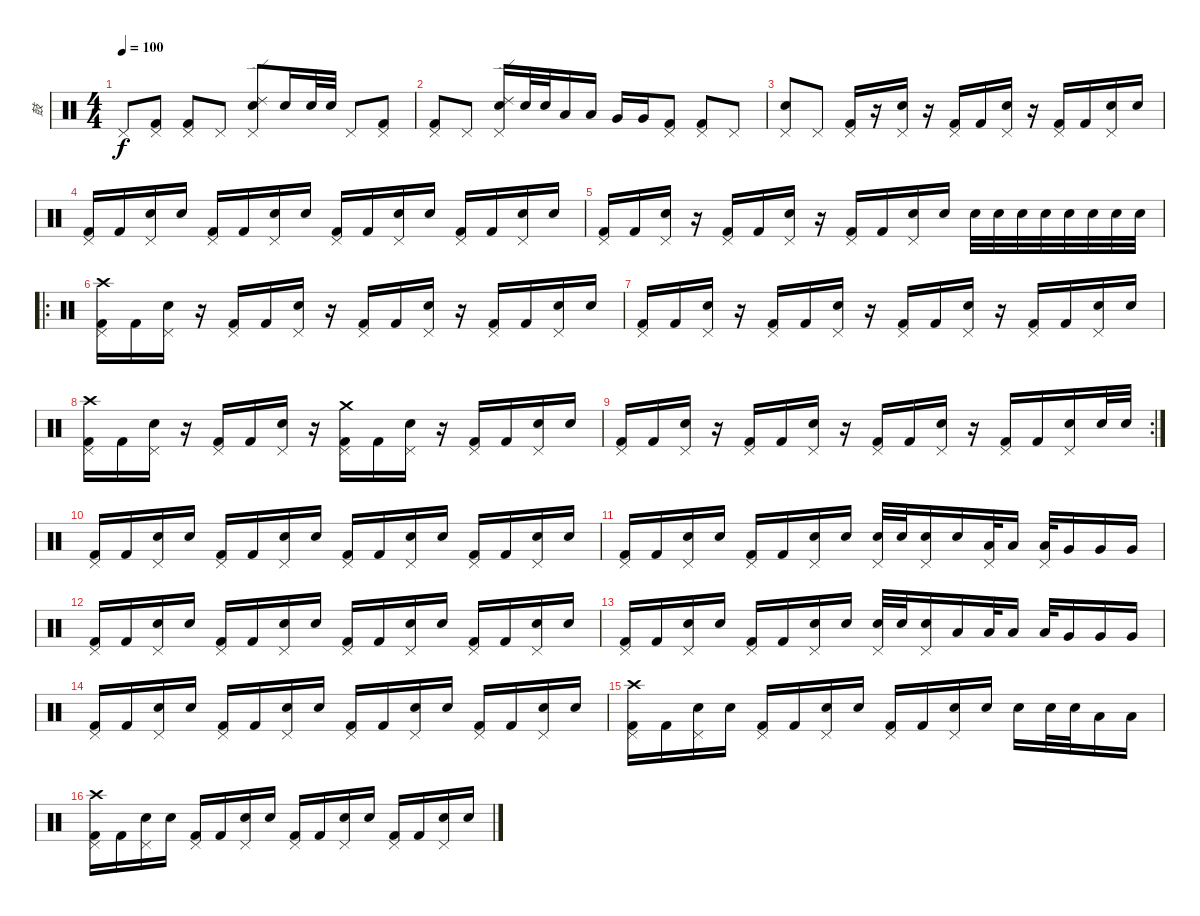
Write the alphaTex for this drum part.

\track ("鼓" "鼓") {instrument percussion}
\staff {score}
\articulation defaults
\ts (4 4)
\tempo 100
\clef neutral
\ks c "Pedal Hi-Hat (hit)".8{dy f}
("Pedal Hi-Hat (hit)" "Kick (hit) 2").8 ("Pedal Hi-Hat (hit)" "Kick (hit) 2").8 "Pedal Hi-Hat (hit)".8 ("Ride (edge) 2" "Pedal Hi-Hat (hit)" "Electric Snare (hit)").8 "Electric Snare (hit)".16 "Electric Snare (hit)".32 "Electric Snare (hit)".32 "Pedal Hi-Hat (hit)".8 ("Pedal Hi-Hat (hit)" "Kick (hit) 2").8 |
("Pedal Hi-Hat (hit)" "Kick (hit) 2").8 "Pedal Hi-Hat (hit)".8 ("Ride (edge) 2" "Pedal Hi-Hat (hit)" "Electric Snare (hit)").16 "Electric Snare (hit)".32 "Electric Snare (hit)".32 "Low Tom (hit)".16 "Low Tom (hit)".16 "Very Low Tom (hit)".16 "Very Low Tom (hit)".16 ("Pedal Hi-Hat (hit)" "Kick (hit) 2").8 ("Pedal Hi-Hat (hit)" "Kick (hit) 2").8 "Pedal Hi-Hat (hit)".8 |
("Pedal Hi-Hat (hit)" "Electric Snare (hit)").8 "Pedal Hi-Hat (hit)".8 ("Pedal Hi-Hat (hit)" "Kick (hit) 2").16 r.16 ("Pedal Hi-Hat (hit)" "Electric Snare (hit)").16 r.16 ("Pedal Hi-Hat (hit)" "Kick (hit) 2").16 "Kick (hit) 2".16 ("Pedal Hi-Hat (hit)" "Electric Snare (hit)").16 r.16 ("Pedal Hi-Hat (hit)" "Kick (hit) 2").16 "Kick (hit) 2".16 ("Pedal Hi-Hat (hit)" "Electric Snare (hit)").16 "Snare (hit)".16 |
("Pedal Hi-Hat (hit)" "Kick (hit) 2").16 "Kick (hit) 2".16 ("Pedal Hi-Hat (hit)" "Electric Snare (hit)").16 "Snare (hit)".16 ("Pedal Hi-Hat (hit)" "Kick (hit) 2").16 "Kick (hit) 2".16 ("Pedal Hi-Hat (hit)" "Electric Snare (hit)").16 "Snare (hit)".16 ("Pedal Hi-Hat (hit)" "Kick (hit) 2").16 "Kick (hit) 2".16 ("Pedal Hi-Hat (hit)" "Electric Snare (hit)").16 "Snare (hit)".16 ("Pedal Hi-Hat (hit)" "Kick (hit) 2").16 "Kick (hit) 2".16 ("Pedal Hi-Hat (hit)" "Electric Snare (hit)").16 "Snare (hit)".16 |
("Pedal Hi-Hat (hit)" "Kick (hit) 2").16 "Kick (hit) 2".16 ("Pedal Hi-Hat (hit)" "Electric Snare (hit)").16 r.16 ("Pedal Hi-Hat (hit)" "Kick (hit) 2").16 "Kick (hit) 2".16 ("Pedal Hi-Hat (hit)" "Electric Snare (hit)").16 r.16 ("Pedal Hi-Hat (hit)" "Kick (hit) 2").16 "Kick (hit) 2".16 ("Pedal Hi-Hat (hit)" "Electric Snare (hit)").16 "Electric Snare (hit)".16 "Electric Snare (hit)".32 "Electric Snare (hit)".32 "Electric Snare (hit)".32 "Electric Snare (hit)".32 "Electric Snare (hit)".32 "Electric Snare (hit)".32 "Electric Snare (hit)".32 "Electric Snare (hit)".32 |
\ro
("Crash high (hit)" "Pedal Hi-Hat (hit)" "Kick (hit) 2").16 "Kick (hit) 2".16 ("Pedal Hi-Hat (hit)" "Electric Snare (hit)").16 r.16 ("Pedal Hi-Hat (hit)" "Kick (hit) 2").16 "Kick (hit) 2".16 ("Pedal Hi-Hat (hit)" "Electric Snare (hit)").16 r.16 ("Pedal Hi-Hat (hit)" "Kick (hit) 2").16 "Kick (hit) 2".16 ("Pedal Hi-Hat (hit)" "Electric Snare (hit)").16 r.16 ("Pedal Hi-Hat (hit)" "Kick (hit) 2").16 "Kick (hit) 2".16 ("Pedal Hi-Hat (hit)" "Electric Snare (hit)").16 "Snare (hit)".16 |
("Pedal Hi-Hat (hit)" "Kick (hit) 2").16 "Kick (hit) 2".16 ("Pedal Hi-Hat (hit)" "Electric Snare (hit)").16 r.16 ("Pedal Hi-Hat (hit)" "Kick (hit) 2").16 "Kick (hit) 2".16 ("Pedal Hi-Hat (hit)" "Electric Snare (hit)").16 r.16 ("Pedal Hi-Hat (hit)" "Kick (hit) 2").16 "Kick (hit) 2".16 ("Pedal Hi-Hat (hit)" "Electric Snare (hit)").16 r.16 ("Pedal Hi-Hat (hit)" "Kick (hit) 2").16 "Kick (hit) 2".16 ("Pedal Hi-Hat (hit)" "Electric Snare (hit)").16 "Snare (hit)".16 |
("Crash high (hit)" "Pedal Hi-Hat (hit)" "Kick (hit) 2").16 "Kick (hit) 2".16 ("Pedal Hi-Hat (hit)" "Electric Snare (hit)").16 r.16 ("Pedal Hi-Hat (hit)" "Kick (hit) 2").16 "Kick (hit) 2".16 ("Pedal Hi-Hat (hit)" "Electric Snare (hit)").16 r.16 ("Crash medium (hit)" "Pedal Hi-Hat (hit)" "Kick (hit) 2").16 "Kick (hit) 2".16 ("Pedal Hi-Hat (hit)" "Electric Snare (hit)").16 r.16 ("Pedal Hi-Hat (hit)" "Kick (hit) 2").16 "Kick (hit) 2".16 ("Pedal Hi-Hat (hit)" "Electric Snare (hit)").16 "Snare (hit)".16 |
\rc 2
("Pedal Hi-Hat (hit)" "Kick (hit) 2").16 "Kick (hit) 2".16 ("Pedal Hi-Hat (hit)" "Electric Snare (hit)").16 r.16 ("Pedal Hi-Hat (hit)" "Kick (hit) 2").16 "Kick (hit) 2".16 ("Pedal Hi-Hat (hit)" "Electric Snare (hit)").16 r.16 ("Pedal Hi-Hat (hit)" "Kick (hit) 2").16 "Kick (hit) 2".16 ("Pedal Hi-Hat (hit)" "Electric Snare (hit)").16 r.16 ("Pedal Hi-Hat (hit)" "Kick (hit) 2").16 "Kick (hit) 2".16 ("Pedal Hi-Hat (hit)" "Electric Snare (hit)").16 "Electric Snare (hit)".32 "Electric Snare (hit)".32 |
("Pedal Hi-Hat (hit)" "Kick (hit) 2").16 "Kick (hit) 2".16 ("Pedal Hi-Hat (hit)" "Electric Snare (hit)").16 "Snare (hit)".16 ("Pedal Hi-Hat (hit)" "Kick (hit) 2").16 "Kick (hit) 2".16 ("Pedal Hi-Hat (hit)" "Electric Snare (hit)").16 "Snare (hit)".16 ("Pedal Hi-Hat (hit)" "Kick (hit) 2").16 "Kick (hit) 2".16 ("Pedal Hi-Hat (hit)" "Electric Snare (hit)").16 "Snare (hit)".16 ("Pedal Hi-Hat (hit)" "Kick (hit) 2").16 "Kick (hit) 2".16 ("Pedal Hi-Hat (hit)" "Electric Snare (hit)").16 "Snare (hit)".16 |
("Pedal Hi-Hat (hit)" "Kick (hit) 2").16 "Kick (hit) 2".16 ("Pedal Hi-Hat (hit)" "Electric Snare (hit)").16 "Snare (hit)".16 ("Pedal Hi-Hat (hit)" "Kick (hit) 2").16 "Kick (hit) 2".16 ("Pedal Hi-Hat (hit)" "Electric Snare (hit)").16 "Snare (hit)".16 ("Pedal Hi-Hat (hit)" "Electric Snare (hit)").32 "Electric Snare (hit)".32 ("Pedal Hi-Hat (hit)" "Electric Snare (hit)").16 "Electric Snare (hit)".16 ("Pedal Hi-Hat (hit)" "Low Tom (hit)").32 "Low Tom (hit)".16 ("Pedal Hi-Hat (hit)" "Low Tom (hit)").32 "Very Low Tom (hit)".16 "Very Low Tom (hit)".16 "Very Low Tom (hit)".16 |
("Pedal Hi-Hat (hit)" "Kick (hit) 2").16 "Kick (hit) 2".16 ("Pedal Hi-Hat (hit)" "Electric Snare (hit)").16 "Snare (hit)".16 ("Pedal Hi-Hat (hit)" "Kick (hit) 2").16 "Kick (hit) 2".16 ("Pedal Hi-Hat (hit)" "Electric Snare (hit)").16 "Snare (hit)".16 ("Pedal Hi-Hat (hit)" "Kick (hit) 2").16 "Kick (hit) 2".16 ("Pedal Hi-Hat (hit)" "Electric Snare (hit)").16 "Snare (hit)".16 ("Pedal Hi-Hat (hit)" "Kick (hit) 2").16 "Kick (hit) 2".16 ("Pedal Hi-Hat (hit)" "Electric Snare (hit)").16 "Snare (hit)".16 |
("Pedal Hi-Hat (hit)" "Kick (hit) 2").16 "Kick (hit) 2".16 ("Pedal Hi-Hat (hit)" "Electric Snare (hit)").16 "Snare (hit)".16 ("Pedal Hi-Hat (hit)" "Kick (hit) 2").16 "Kick (hit) 2".16 ("Pedal Hi-Hat (hit)" "Electric Snare (hit)").16 "Snare (hit)".16 ("Pedal Hi-Hat (hit)" "Electric Snare (hit)").32 "Electric Snare (hit)".32 ("Pedal Hi-Hat (hit)" "Electric Snare (hit)").16 "Low Tom (hit)".16 "Low Tom (hit)".32 "Low Tom (hit)".16 "Low Tom (hit)".32 "Very Low Tom (hit)".16 "Very Low Tom (hit)".16 "Very Low Tom (hit)".16 |
("Pedal Hi-Hat (hit)" "Kick (hit) 2").16 "Kick (hit) 2".16 ("Pedal Hi-Hat (hit)" "Electric Snare (hit)").16 "Snare (hit)".16 ("Pedal Hi-Hat (hit)" "Kick (hit) 2").16 "Kick (hit) 2".16 ("Pedal Hi-Hat (hit)" "Electric Snare (hit)").16 "Snare (hit)".16 ("Pedal Hi-Hat (hit)" "Kick (hit) 2").16 "Kick (hit) 2".16 ("Pedal Hi-Hat (hit)" "Electric Snare (hit)").16 "Snare (hit)".16 ("Pedal Hi-Hat (hit)" "Kick (hit) 2").16 "Kick (hit) 2".16 ("Pedal Hi-Hat (hit)" "Electric Snare (hit)").16 "Snare (hit)".16 |
("Crash high (hit)" "Pedal Hi-Hat (hit)" "Kick (hit) 2").16 "Kick (hit) 2".16 ("Pedal Hi-Hat (hit)" "Electric Snare (hit)").16 "Snare (hit)".16 ("Pedal Hi-Hat (hit)" "Kick (hit) 2").16 "Kick (hit) 2".16 ("Pedal Hi-Hat (hit)" "Electric Snare (hit)").16 "Snare (hit)".16 ("Pedal Hi-Hat (hit)" "Kick (hit) 2").16 "Kick (hit) 2".16 ("Pedal Hi-Hat (hit)" "Electric Snare (hit)").16 "Snare (hit)".16 "Electric Snare (hit)".16 "Electric Snare (hit)".32 "Electric Snare (hit)".32 "Low Tom (hit)".16 "Low Tom (hit)".16 |
("Crash high (hit)" "Pedal Hi-Hat (hit)" "Kick (hit) 2").16 "Kick (hit) 2".16 ("Pedal Hi-Hat (hit)" "Electric Snare (hit)").16 "Snare (hit)".16 ("Pedal Hi-Hat (hit)" "Kick (hit) 2").16 "Kick (hit) 2".16 ("Pedal Hi-Hat (hit)" "Electric Snare (hit)").16 "Snare (hit)".16 ("Pedal Hi-Hat (hit)" "Kick (hit) 2").16 "Kick (hit) 2".16 ("Pedal Hi-Hat (hit)" "Electric Snare (hit)").16 "Snare (hit)".16 ("Pedal Hi-Hat (hit)" "Kick (hit) 2").16 "Kick (hit) 2".16 ("Pedal Hi-Hat (hit)" "Electric Snare (hit)").16 "Snare (hit)".16
